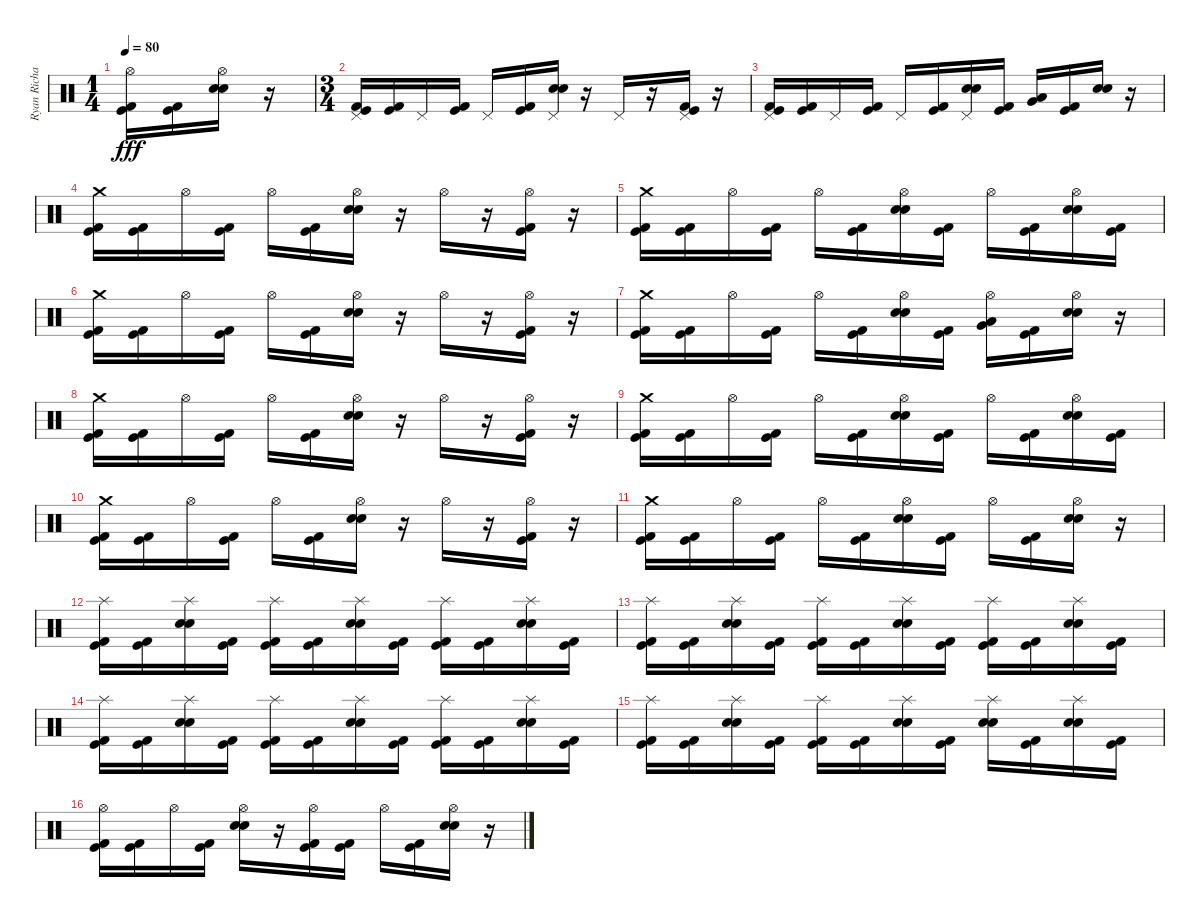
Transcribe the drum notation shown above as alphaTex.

\track ("Ryan Richards" "Ryan Richa") {instrument percussion}
\staff {score}
\articulation defaults
\ts (1 4)
\tempo 80
\clef neutral
\ks c
("Kick (hit)" "Hi-Hat (open)" "Kick (hit) 2").16{dy fff} ("Kick (hit)" "Kick (hit) 2").16 ("Hi-Hat (open)" "Snare (hit) 2" "Electric Snare (hit)").16 r.16 |
\ts (3 4)
("Kick (hit)" "Pedal Hi-Hat (hit)" "Kick (hit) 2").16 ("Kick (hit)" "Kick (hit) 2").16 "Pedal Hi-Hat (hit)".16 ("Kick (hit)" "Kick (hit) 2").16 "Pedal Hi-Hat (hit)".16 ("Kick (hit)" "Kick (hit) 2").16 ("Pedal Hi-Hat (hit)" "Snare (hit) 2" "Electric Snare (hit)").16 r.16 "Pedal Hi-Hat (hit)".16 r.16 ("Kick (hit)" "Pedal Hi-Hat (hit)" "Kick (hit) 2").16 r.16 |
("Kick (hit)" "Pedal Hi-Hat (hit)" "Kick (hit) 2").16 ("Kick (hit)" "Kick (hit) 2").16 "Pedal Hi-Hat (hit)".16 ("Kick (hit)" "Kick (hit) 2").16 "Pedal Hi-Hat (hit)".16 ("Kick (hit)" "Kick (hit) 2").16 ("Pedal Hi-Hat (hit)" "Snare (hit) 2" "Electric Snare (hit)").16 ("Kick (hit)" "Kick (hit) 2").16 ("Low Tom (hit)" "Very Low Tom (hit)").16 ("Kick (hit)" "Kick (hit) 2").16 ("Snare (hit) 2" "Electric Snare (hit)").16 r.16 |
("Kick (hit)" "Crash medium (hit)" "Kick (hit) 2").16 ("Kick (hit)" "Kick (hit) 2").16 "Hi-Hat (open)".16 ("Kick (hit)" "Kick (hit) 2").16 "Hi-Hat (open)".16 ("Kick (hit)" "Kick (hit) 2").16 ("Hi-Hat (open)" "Snare (hit) 2" "Electric Snare (hit)").16 r.16 "Hi-Hat (open)".16 r.16 ("Kick (hit)" "Hi-Hat (open)" "Kick (hit) 2").16 r.16 |
("Kick (hit)" "Crash medium (hit)" "Kick (hit) 2").16 ("Kick (hit)" "Kick (hit) 2").16 "Hi-Hat (open)".16 ("Kick (hit)" "Kick (hit) 2").16 "Hi-Hat (open)".16 ("Kick (hit)" "Kick (hit) 2").16 ("Hi-Hat (open)" "Snare (hit) 2" "Electric Snare (hit)").16 ("Kick (hit)" "Kick (hit) 2").16 "Hi-Hat (open)".16 ("Kick (hit)" "Kick (hit) 2").16 ("Hi-Hat (open)" "Snare (hit) 2" "Electric Snare (hit)").16 ("Kick (hit)" "Kick (hit) 2").16 |
("Kick (hit)" "Crash medium (hit)" "Kick (hit) 2").16 ("Kick (hit)" "Kick (hit) 2").16 "Hi-Hat (open)".16 ("Kick (hit)" "Kick (hit) 2").16 "Hi-Hat (open)".16 ("Kick (hit)" "Kick (hit) 2").16 ("Hi-Hat (open)" "Snare (hit) 2" "Electric Snare (hit)").16 r.16 "Hi-Hat (open)".16 r.16 ("Kick (hit)" "Hi-Hat (open)" "Kick (hit) 2").16 r.16 |
("Kick (hit)" "Crash medium (hit)" "Kick (hit) 2").16 ("Kick (hit)" "Kick (hit) 2").16 "Hi-Hat (open)".16 ("Kick (hit)" "Kick (hit) 2").16 "Hi-Hat (open)".16 ("Kick (hit)" "Kick (hit) 2").16 ("Hi-Hat (open)" "Snare (hit) 2" "Electric Snare (hit)").16 ("Kick (hit)" "Kick (hit) 2").16 ("Hi-Hat (open)" "Low Tom (hit)" "Very Low Tom (hit)").16 ("Kick (hit)" "Kick (hit) 2").16 ("Hi-Hat (open)" "Snare (hit) 2" "Electric Snare (hit)").16 r.16 |
("Kick (hit)" "Crash medium (hit)" "Kick (hit) 2").16 ("Kick (hit)" "Kick (hit) 2").16 "Hi-Hat (open)".16 ("Kick (hit)" "Kick (hit) 2").16 "Hi-Hat (open)".16 ("Kick (hit)" "Kick (hit) 2").16 ("Hi-Hat (open)" "Snare (hit) 2" "Electric Snare (hit)").16 r.16 "Hi-Hat (open)".16 r.16 ("Kick (hit)" "Hi-Hat (open)" "Kick (hit) 2").16 r.16 |
("Kick (hit)" "Crash medium (hit)" "Kick (hit) 2").16 ("Kick (hit)" "Kick (hit) 2").16 "Hi-Hat (open)".16 ("Kick (hit)" "Kick (hit) 2").16 "Hi-Hat (open)".16 ("Kick (hit)" "Kick (hit) 2").16 ("Hi-Hat (open)" "Snare (hit) 2" "Electric Snare (hit)").16 ("Kick (hit)" "Kick (hit) 2").16 "Hi-Hat (open)".16 ("Kick (hit)" "Kick (hit) 2").16 ("Hi-Hat (open)" "Snare (hit) 2" "Electric Snare (hit)").16 ("Kick (hit)" "Kick (hit) 2").16 |
("Kick (hit)" "Crash medium (hit)" "Kick (hit) 2").16 ("Kick (hit)" "Kick (hit) 2").16 "Hi-Hat (open)".16 ("Kick (hit)" "Kick (hit) 2").16 "Hi-Hat (open)".16 ("Kick (hit)" "Kick (hit) 2").16 ("Hi-Hat (open)" "Snare (hit) 2" "Electric Snare (hit)").16 r.16 "Hi-Hat (open)".16 r.16 ("Kick (hit)" "Hi-Hat (open)" "Kick (hit) 2").16 r.16 |
("Kick (hit)" "Crash medium (hit)" "Kick (hit) 2").16 ("Kick (hit)" "Kick (hit) 2").16 "Hi-Hat (open)".16 ("Kick (hit)" "Kick (hit) 2").16 "Hi-Hat (open)".16 ("Kick (hit)" "Kick (hit) 2").16 ("Hi-Hat (open)" "Snare (hit) 2" "Electric Snare (hit)").16 ("Kick (hit)" "Kick (hit) 2").16 "Hi-Hat (open)".16 ("Kick (hit)" "Kick (hit) 2").16 ("Hi-Hat (open)" "Snare (hit) 2" "Electric Snare (hit)").16 r.16 |
("Kick (hit)" "Splash (hit)" "Kick (hit) 2").16 ("Kick (hit)" "Kick (hit) 2").16 ("Splash (hit)" "Snare (hit) 2" "Electric Snare (hit)").16 ("Kick (hit)" "Kick (hit) 2").16 ("Kick (hit)" "Splash (hit)" "Kick (hit) 2").16 ("Kick (hit)" "Kick (hit) 2").16 ("Splash (hit)" "Snare (hit) 2" "Electric Snare (hit)").16 ("Kick (hit)" "Kick (hit) 2").16 ("Kick (hit)" "Splash (hit)" "Kick (hit) 2").16 ("Kick (hit)" "Kick (hit) 2").16 ("Splash (hit)" "Snare (hit) 2" "Electric Snare (hit)").16 ("Kick (hit)" "Kick (hit) 2").16 |
("Kick (hit)" "Splash (hit)" "Kick (hit) 2").16 ("Kick (hit)" "Kick (hit) 2").16 ("Splash (hit)" "Snare (hit) 2" "Electric Snare (hit)").16 ("Kick (hit)" "Kick (hit) 2").16 ("Kick (hit)" "Splash (hit)" "Kick (hit) 2").16 ("Kick (hit)" "Kick (hit) 2").16 ("Splash (hit)" "Snare (hit) 2" "Electric Snare (hit)").16 ("Kick (hit)" "Kick (hit) 2").16 ("Kick (hit)" "Splash (hit)" "Kick (hit) 2").16 ("Kick (hit)" "Kick (hit) 2").16 ("Splash (hit)" "Snare (hit) 2" "Electric Snare (hit)").16 ("Kick (hit)" "Kick (hit) 2").16 |
("Kick (hit)" "Splash (hit)" "Kick (hit) 2").16 ("Kick (hit)" "Kick (hit) 2").16 ("Splash (hit)" "Snare (hit) 2" "Electric Snare (hit)").16 ("Kick (hit)" "Kick (hit) 2").16 ("Kick (hit)" "Splash (hit)" "Kick (hit) 2").16 ("Kick (hit)" "Kick (hit) 2").16 ("Splash (hit)" "Snare (hit) 2" "Electric Snare (hit)").16 ("Kick (hit)" "Kick (hit) 2").16 ("Kick (hit)" "Splash (hit)" "Kick (hit) 2").16 ("Kick (hit)" "Kick (hit) 2").16 ("Splash (hit)" "Snare (hit) 2" "Electric Snare (hit)").16 ("Kick (hit)" "Kick (hit) 2").16 |
("Kick (hit)" "Splash (hit)" "Kick (hit) 2").16 ("Kick (hit)" "Kick (hit) 2").16 ("Splash (hit)" "Snare (hit) 2" "Electric Snare (hit)").16 ("Kick (hit)" "Kick (hit) 2").16 ("Kick (hit)" "Splash (hit)" "Kick (hit) 2").16 ("Kick (hit)" "Kick (hit) 2").16 ("Splash (hit)" "Snare (hit) 2" "Electric Snare (hit)").16 ("Kick (hit)" "Kick (hit) 2").16 ("Splash (hit)" "Snare (hit) 2" "Electric Snare (hit)").16 ("Kick (hit)" "Kick (hit) 2").16 ("Splash (hit)" "Snare (hit) 2" "Electric Snare (hit)").16 ("Kick (hit)" "Kick (hit) 2").16 |
("Kick (hit)" "Hi-Hat (open)" "Kick (hit) 2").16 ("Kick (hit)" "Kick (hit) 2").16 "Hi-Hat (open)".16 ("Kick (hit)" "Kick (hit) 2").16 ("Hi-Hat (open)" "Snare (hit) 2" "Electric Snare (hit)").16 r.16 ("Kick (hit)" "Hi-Hat (open)" "Kick (hit) 2").16 ("Kick (hit)" "Kick (hit) 2").16 "Hi-Hat (open)".16 ("Kick (hit)" "Kick (hit) 2").16 ("Hi-Hat (open)" "Snare (hit) 2" "Electric Snare (hit)").16 r.16
